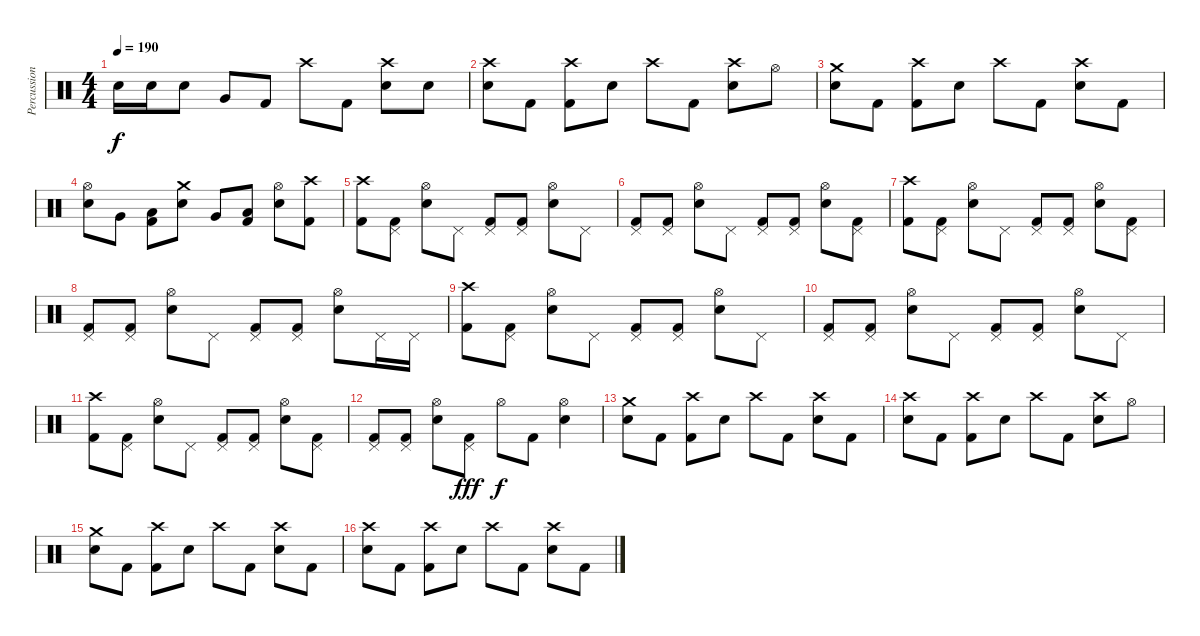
\track ("Percussions" "Percussion") {instrument percussion}
\staff {score}
\articulation defaults
\ts (4 4)
\tempo 190
\clef neutral
\ks c "Electric Snare (hit)".16{dy f} "Electric Snare (hit)".16 "Electric Snare (hit)".8 "Very Low Tom (hit)".8 "Kick (hit) 2".8 "Crash high (hit)".8 "Kick (hit) 2".8
("Crash high (hit)" "Electric Snare (hit)").8 "Electric Snare (hit)".8 |
("Crash high (hit)" "Electric Snare (hit)").8 "Kick (hit) 2".8 ("Crash high (hit)" "Kick (hit) 2").8 "Electric Snare (hit)".8 "Crash high (hit)".8 "Kick (hit) 2".8 ("Crash high (hit)" "Electric Snare (hit)").8 "Hi-Hat (open)".8 |
("Crash medium (hit)" "Electric Snare (hit)").8 "Kick (hit) 2".8 ("Crash high (hit)" "Kick (hit) 2").8 "Electric Snare (hit)".8 "Crash high (hit)".8 "Kick (hit) 2".8 ("Crash high (hit)" "Electric Snare (hit)").8 "Kick (hit) 2".8 |
("Hi-Hat (open)" "Electric Snare (hit)").8 "Very Low Tom (hit)".8 ("Low Floor Tom (hit)" "Kick (hit) 2").8 ("Crash medium (hit)" "Electric Snare (hit)").8 "Very Low Tom (hit)".8 ("Low Floor Tom (hit)" "Kick (hit) 2").8 ("Hi-Hat (open)" "Electric Snare (hit)").8 ("Crash high (hit)" "Kick (hit) 2").8 |
("Crash high (hit)" "Kick (hit) 2").8 ("Pedal Hi-Hat (hit)" "Kick (hit) 2").8 ("Hi-Hat (open)" "Electric Snare (hit)").8 "Pedal Hi-Hat (hit)".8 ("Pedal Hi-Hat (hit)" "Kick (hit) 2").8 ("Pedal Hi-Hat (hit)" "Kick (hit) 2").8 ("Hi-Hat (open)" "Electric Snare (hit)").8 "Pedal Hi-Hat (hit)".8 |
("Pedal Hi-Hat (hit)" "Kick (hit) 2").8 ("Pedal Hi-Hat (hit)" "Kick (hit) 2").8 ("Hi-Hat (open)" "Electric Snare (hit)").8 "Pedal Hi-Hat (hit)".8 ("Pedal Hi-Hat (hit)" "Kick (hit) 2").8 ("Pedal Hi-Hat (hit)" "Kick (hit) 2").8 ("Hi-Hat (open)" "Electric Snare (hit)").8 ("Pedal Hi-Hat (hit)" "Kick (hit) 2").8 |
("Crash high (hit)" "Kick (hit) 2").8 ("Pedal Hi-Hat (hit)" "Kick (hit) 2").8 ("Hi-Hat (open)" "Electric Snare (hit)").8 "Pedal Hi-Hat (hit)".8 ("Pedal Hi-Hat (hit)" "Kick (hit) 2").8 ("Pedal Hi-Hat (hit)" "Kick (hit) 2").8 ("Hi-Hat (open)" "Electric Snare (hit)").8 ("Pedal Hi-Hat (hit)" "Kick (hit) 2").8 |
("Pedal Hi-Hat (hit)" "Kick (hit) 2").8 ("Pedal Hi-Hat (hit)" "Kick (hit) 2").8 ("Hi-Hat (open)" "Electric Snare (hit)").8 "Pedal Hi-Hat (hit)".8 ("Pedal Hi-Hat (hit)" "Kick (hit) 2").8 ("Pedal Hi-Hat (hit)" "Kick (hit) 2").8 ("Hi-Hat (open)" "Electric Snare (hit)").8 "Pedal Hi-Hat (hit)".16 "Pedal Hi-Hat (hit)".16 |
("Crash high (hit)" "Kick (hit) 2").8 ("Pedal Hi-Hat (hit)" "Kick (hit) 2").8 ("Hi-Hat (open)" "Electric Snare (hit)").8 "Pedal Hi-Hat (hit)".8 ("Pedal Hi-Hat (hit)" "Kick (hit) 2").8 ("Pedal Hi-Hat (hit)" "Kick (hit) 2").8 ("Hi-Hat (open)" "Electric Snare (hit)").8 "Pedal Hi-Hat (hit)".8 |
("Pedal Hi-Hat (hit)" "Kick (hit) 2").8 ("Pedal Hi-Hat (hit)" "Kick (hit) 2").8 ("Hi-Hat (open)" "Electric Snare (hit)").8 "Pedal Hi-Hat (hit)".8 ("Pedal Hi-Hat (hit)" "Kick (hit) 2").8 ("Pedal Hi-Hat (hit)" "Kick (hit) 2").8 ("Hi-Hat (open)" "Electric Snare (hit)").8 "Pedal Hi-Hat (hit)".8 |
("Crash high (hit)" "Kick (hit) 2").8 ("Pedal Hi-Hat (hit)" "Kick (hit) 2").8 ("Hi-Hat (open)" "Electric Snare (hit)").8 "Pedal Hi-Hat (hit)".8 ("Pedal Hi-Hat (hit)" "Kick (hit) 2").8 ("Pedal Hi-Hat (hit)" "Kick (hit) 2").8 ("Hi-Hat (open)" "Electric Snare (hit)").8 ("Pedal Hi-Hat (hit)" "Kick (hit) 2").8 |
("Pedal Hi-Hat (hit)" "Kick (hit) 2").8 ("Pedal Hi-Hat (hit)" "Kick (hit) 2").8 ("Hi-Hat (open)" "Electric Snare (hit)").8 ("Pedal Hi-Hat (hit)" "Kick (hit) 2").8{dy fff} "Hi-Hat (open)".8{dy f} "Kick (hit) 2".8 ("Hi-Hat (open)" "Electric Snare (hit)").4 |
("Crash medium (hit)" "Electric Snare (hit)").8 "Kick (hit) 2".8 ("Crash high (hit)" "Kick (hit) 2").8 "Electric Snare (hit)".8 "Crash high (hit)".8 "Kick (hit) 2".8 ("Crash high (hit)" "Electric Snare (hit)").8 "Kick (hit) 2".8 |
("Crash high (hit)" "Electric Snare (hit)").8 "Kick (hit) 2".8 ("Crash high (hit)" "Kick (hit) 2").8 "Electric Snare (hit)".8 "Crash high (hit)".8 "Kick (hit) 2".8 ("Crash high (hit)" "Electric Snare (hit)").8 "Hi-Hat (open)".8 |
("Crash medium (hit)" "Electric Snare (hit)").8 "Kick (hit) 2".8 ("Crash high (hit)" "Kick (hit) 2").8 "Electric Snare (hit)".8 "Crash high (hit)".8 "Kick (hit) 2".8 ("Crash high (hit)" "Electric Snare (hit)").8 "Kick (hit) 2".8 |
("Crash high (hit)" "Electric Snare (hit)").8 "Kick (hit) 2".8 ("Crash high (hit)" "Kick (hit) 2").8 "Electric Snare (hit)".8 "Crash high (hit)".8 "Kick (hit) 2".8 ("Crash high (hit)" "Electric Snare (hit)").8 "Kick (hit) 2".8
